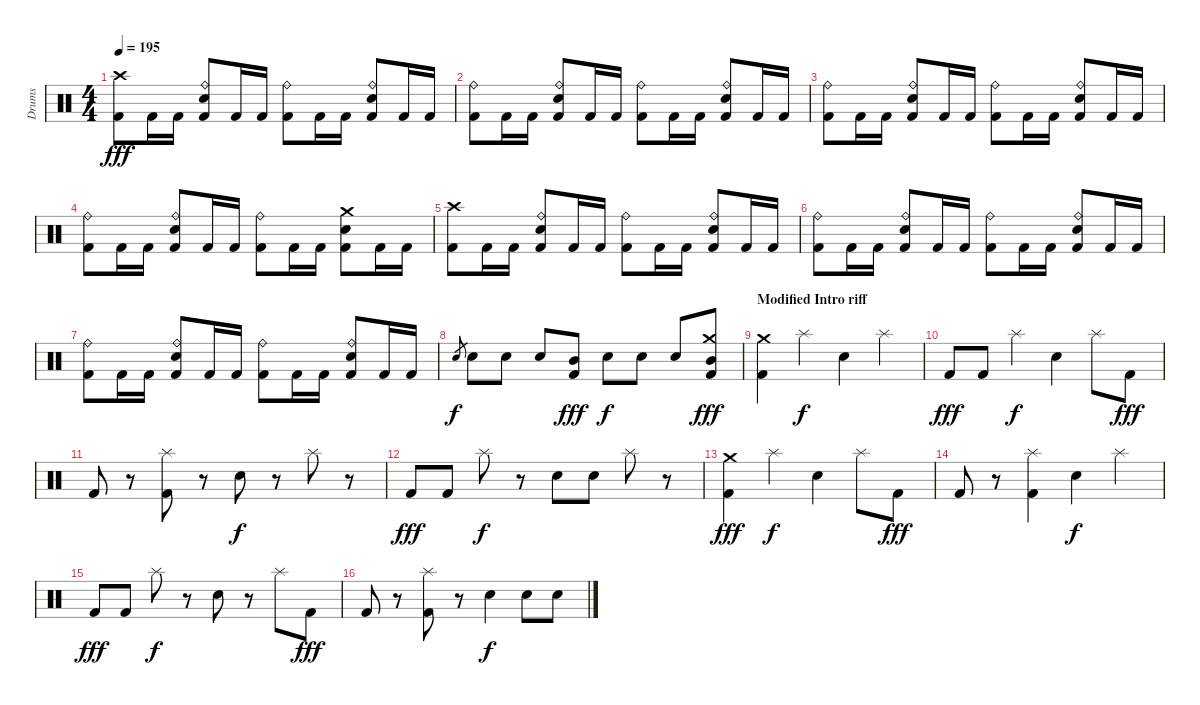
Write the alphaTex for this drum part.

\track ("Drums" "Drums") {instrument percussion}
\staff {score}
\articulation defaults
\ts (4 4)
\tempo 195
\clef neutral
\ks c
("Crash high (hit)" "Kick (hit) 2").8{dy fff} "Kick (hit) 2".16 "Kick (hit) 2".16 ("Ride (bell)" "Snare (hit) 2" "Kick (hit) 2").8 "Kick (hit) 2".16 "Kick (hit) 2".16 ("Ride (bell)" "Kick (hit) 2").8 "Kick (hit) 2".16 "Kick (hit) 2".16 ("Ride (bell)" "Snare (hit) 2" "Kick (hit) 2").8 "Kick (hit) 2".16 "Kick (hit) 2".16 |
("Ride (bell)" "Kick (hit) 2").8 "Kick (hit) 2".16 "Kick (hit) 2".16 ("Ride (bell)" "Snare (hit) 2" "Kick (hit) 2").8 "Kick (hit) 2".16 "Kick (hit) 2".16 ("Ride (bell)" "Kick (hit) 2").8 "Kick (hit) 2".16 "Kick (hit) 2".16 ("Ride (bell)" "Snare (hit) 2" "Kick (hit) 2").8 "Kick (hit) 2".16 "Kick (hit) 2".16 |
("Ride (bell)" "Kick (hit) 2").8 "Kick (hit) 2".16 "Kick (hit) 2".16 ("Ride (bell)" "Snare (hit) 2" "Kick (hit) 2").8 "Kick (hit) 2".16 "Kick (hit) 2".16 ("Ride (bell)" "Kick (hit) 2").8 "Kick (hit) 2".16 "Kick (hit) 2".16 ("Ride (bell)" "Snare (hit) 2" "Kick (hit) 2").8 "Kick (hit) 2".16 "Kick (hit) 2".16 |
("Ride (bell)" "Kick (hit) 2").8 "Kick (hit) 2".16 "Kick (hit) 2".16 ("Ride (bell)" "Snare (hit) 2" "Kick (hit) 2").8 "Kick (hit) 2".16 "Kick (hit) 2".16 ("Ride (bell)" "Kick (hit) 2").8 "Kick (hit) 2".16 "Kick (hit) 2".16 ("Crash medium (hit)" "Snare (hit) 2" "Kick (hit) 2").8 "Kick (hit) 2".16 "Kick (hit) 2".16 |
("Crash high (hit)" "Kick (hit) 2").8 "Kick (hit) 2".16 "Kick (hit) 2".16 ("Ride (bell)" "Snare (hit) 2" "Kick (hit) 2").8 "Kick (hit) 2".16 "Kick (hit) 2".16 ("Ride (bell)" "Kick (hit) 2").8 "Kick (hit) 2".16 "Kick (hit) 2".16 ("Ride (bell)" "Snare (hit) 2" "Kick (hit) 2").8 "Kick (hit) 2".16 "Kick (hit) 2".16 |
("Ride (bell)" "Kick (hit) 2").8 "Kick (hit) 2".16 "Kick (hit) 2".16 ("Ride (bell)" "Snare (hit) 2" "Kick (hit) 2").8 "Kick (hit) 2".16 "Kick (hit) 2".16 ("Ride (bell)" "Kick (hit) 2").8 "Kick (hit) 2".16 "Kick (hit) 2".16 ("Ride (bell)" "Snare (hit) 2" "Kick (hit) 2").8 "Kick (hit) 2".16 "Kick (hit) 2".16 |
("Ride (bell)" "Kick (hit) 2").8 "Kick (hit) 2".16 "Kick (hit) 2".16 ("Ride (bell)" "Snare (hit) 2" "Kick (hit) 2").8 "Kick (hit) 2".16 "Kick (hit) 2".16 ("Ride (bell)" "Kick (hit) 2").8 "Kick (hit) 2".16 "Kick (hit) 2".16 ("Ride (bell)" "Snare (hit) 2" "Kick (hit) 2").8 "Kick (hit) 2".16 "Kick (hit) 2".16 |
"Snare (hit) 2".8{gr dy f} "Snare (hit) 2".8 "Snare (hit) 2".8 "Snare (hit) 2".8 ("Mid Tom (hit)" "Kick (hit) 2").8{dy fff} "Snare (hit) 2".8{dy f} "Snare (hit) 2".8 "Snare (hit) 2".8 ("Crash medium (hit)" "Mid Tom (hit)" "Kick (hit) 2").8{dy fff} |
\section ("" "Modified Intro riff")
("Crash medium (hit)" "Kick (hit) 2").4 "Splash (hit)".4{dy f} "Snare (hit) 2".4 "Splash (hit)".4 |
"Kick (hit) 2".8{dy fff} "Kick (hit) 2".8 "Splash (hit)".4{dy f} "Snare (hit) 2".4 "Splash (hit)".8 "Kick (hit) 2".8{dy fff} |
"Kick (hit) 2".8 r.8 ("Splash (hit)" "Kick (hit) 2").8 r.8 "Snare (hit) 2".8{dy f} r.8 "Splash (hit)".8 r.8 |
"Kick (hit) 2".8{dy fff} "Kick (hit) 2".8 "Splash (hit)".8{dy f} r.8 "Snare (hit) 2".8 "Snare (hit) 2".8 "Splash (hit)".8 r.8 |
("Crash medium (hit)" "Kick (hit) 2").4{dy fff} "Splash (hit)".4{dy f} "Snare (hit) 2".4 "Splash (hit)".8 "Kick (hit) 2".8{dy fff} |
"Kick (hit) 2".8 r.8 ("Splash (hit)" "Kick (hit) 2").4 "Snare (hit) 2".4{dy f} "Splash (hit)".4 |
"Kick (hit) 2".8{dy fff} "Kick (hit) 2".8 "Splash (hit)".8{dy f} r.8 "Snare (hit) 2".8 r.8 "Splash (hit)".8 "Kick (hit) 2".8{dy fff} |
"Kick (hit) 2".8 r.8 ("Splash (hit)" "Kick (hit) 2").8 r.8 "Snare (hit) 2".4{dy f} "Snare (hit) 2".8 "Snare (hit) 2".8
